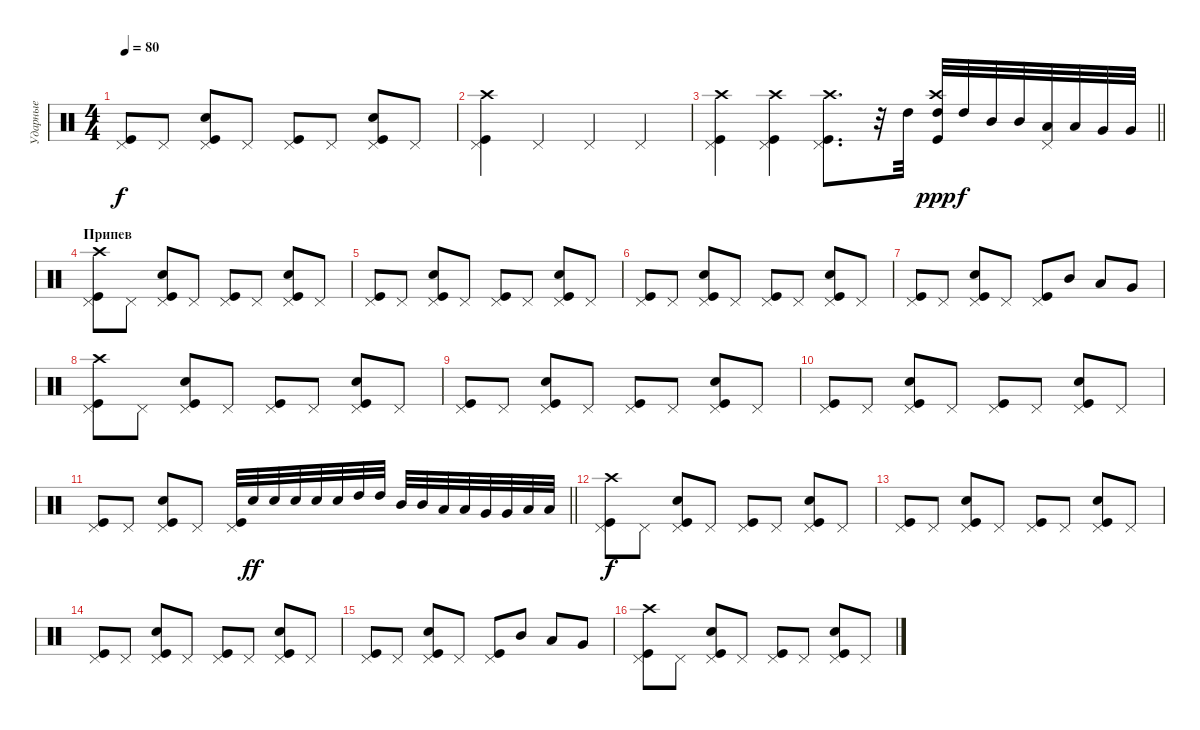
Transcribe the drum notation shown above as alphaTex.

\track ("Ударные" "Ударные") {instrument percussion}
\staff {score}
\articulation defaults
\ts (4 4)
\tempo 80
\clef neutral
\ks c
("Kick (hit)" "Pedal Hi-Hat (hit)").8{dy f} "Pedal Hi-Hat (hit)".8 ("Kick (hit)" "Snare (hit) 2" "Pedal Hi-Hat (hit)").8 "Pedal Hi-Hat (hit)".8 ("Kick (hit)" "Pedal Hi-Hat (hit)").8 "Pedal Hi-Hat (hit)".8 ("Kick (hit)" "Snare (hit) 2" "Pedal Hi-Hat (hit)").8 "Pedal Hi-Hat (hit)".8 |
("Kick (hit)" "Crash high (hit)" "Pedal Hi-Hat (hit)").4 "Pedal Hi-Hat (hit)".4 "Pedal Hi-Hat (hit)".4 "Pedal Hi-Hat (hit)".4 |
\barLineRight lightlight
("Kick (hit)" "Pedal Hi-Hat (hit)" "Crash high (hit)").4 ("Kick (hit)" "Pedal Hi-Hat (hit)" "Crash high (hit)").4 ("Kick (hit)" "Pedal Hi-Hat (hit)" "Crash high (hit)").8{d} r.32 "High Tom (hit)".32 ("Kick (hit)" "High Tom (hit)" "Crash high (hit)").32{dy ppp} "High Tom (hit)".32{dy f} "Mid Tom (hit)".32 "Mid Tom (hit)".32 ("Low Tom (hit)" "Pedal Hi-Hat (hit)").32 "Low Tom (hit)".32 "Very Low Tom (hit)".32 "Very Low Tom (hit)".32 |
\section ("" "Припев")
("Kick (hit)" "Crash high (hit)" "Pedal Hi-Hat (hit)").8 "Pedal Hi-Hat (hit)".8 ("Kick (hit)" "Snare (hit) 2" "Pedal Hi-Hat (hit)").8 "Pedal Hi-Hat (hit)".8 ("Kick (hit)" "Pedal Hi-Hat (hit)").8 "Pedal Hi-Hat (hit)".8 ("Kick (hit)" "Snare (hit) 2" "Pedal Hi-Hat (hit)").8 "Pedal Hi-Hat (hit)".8 |
("Kick (hit)" "Pedal Hi-Hat (hit)").8 "Pedal Hi-Hat (hit)".8 ("Kick (hit)" "Snare (hit) 2" "Pedal Hi-Hat (hit)").8 "Pedal Hi-Hat (hit)".8 ("Kick (hit)" "Pedal Hi-Hat (hit)").8 "Pedal Hi-Hat (hit)".8 ("Kick (hit)" "Snare (hit) 2" "Pedal Hi-Hat (hit)").8 "Pedal Hi-Hat (hit)".8 |
("Kick (hit)" "Pedal Hi-Hat (hit)").8 "Pedal Hi-Hat (hit)".8 ("Kick (hit)" "Snare (hit) 2" "Pedal Hi-Hat (hit)").8 "Pedal Hi-Hat (hit)".8 ("Kick (hit)" "Pedal Hi-Hat (hit)").8 "Pedal Hi-Hat (hit)".8 ("Kick (hit)" "Snare (hit) 2" "Pedal Hi-Hat (hit)").8 "Pedal Hi-Hat (hit)".8 |
("Kick (hit)" "Pedal Hi-Hat (hit)").8 "Pedal Hi-Hat (hit)".8 ("Kick (hit)" "Snare (hit) 2" "Pedal Hi-Hat (hit)").8 "Pedal Hi-Hat (hit)".8 ("Kick (hit)" "Pedal Hi-Hat (hit)").8 "Mid Tom (hit)".8 "Low Tom (hit)".8 "Very Low Tom (hit)".8 |
("Kick (hit)" "Crash high (hit)" "Pedal Hi-Hat (hit)").8 "Pedal Hi-Hat (hit)".8 ("Kick (hit)" "Snare (hit) 2" "Pedal Hi-Hat (hit)").8 "Pedal Hi-Hat (hit)".8 ("Kick (hit)" "Pedal Hi-Hat (hit)").8 "Pedal Hi-Hat (hit)".8 ("Kick (hit)" "Snare (hit) 2" "Pedal Hi-Hat (hit)").8 "Pedal Hi-Hat (hit)".8 |
("Kick (hit)" "Pedal Hi-Hat (hit)").8 "Pedal Hi-Hat (hit)".8 ("Kick (hit)" "Snare (hit) 2" "Pedal Hi-Hat (hit)").8 "Pedal Hi-Hat (hit)".8 ("Kick (hit)" "Pedal Hi-Hat (hit)").8 "Pedal Hi-Hat (hit)".8 ("Kick (hit)" "Snare (hit) 2" "Pedal Hi-Hat (hit)").8 "Pedal Hi-Hat (hit)".8 |
("Kick (hit)" "Pedal Hi-Hat (hit)").8 "Pedal Hi-Hat (hit)".8 ("Kick (hit)" "Snare (hit) 2" "Pedal Hi-Hat (hit)").8 "Pedal Hi-Hat (hit)".8 ("Kick (hit)" "Pedal Hi-Hat (hit)").8 "Pedal Hi-Hat (hit)".8 ("Kick (hit)" "Snare (hit) 2" "Pedal Hi-Hat (hit)").8 "Pedal Hi-Hat (hit)".8 |
\barLineRight lightlight
("Kick (hit)" "Pedal Hi-Hat (hit)").8 "Pedal Hi-Hat (hit)".8 ("Kick (hit)" "Snare (hit) 2" "Pedal Hi-Hat (hit)").8 "Pedal Hi-Hat (hit)".8 ("Kick (hit)" "Pedal Hi-Hat (hit)").32 "Snare (hit) 2".32{dy ff} "Snare (hit) 2".32 "Snare (hit) 2".32 "Snare (hit) 2".32 "Snare (hit) 2".32 "High Tom (hit)".32 "High Tom (hit)".32 "Mid Tom (hit)".32 "Mid Tom (hit)".32 "Low Tom (hit)".32 "Low Tom (hit)".32 "Very Low Tom (hit)".32 "Very Low Tom (hit)".32 "Low Floor Tom (hit)".32 "Low Floor Tom (hit)".32 |
("Kick (hit)" "Crash high (hit)" "Pedal Hi-Hat (hit)").8{dy f} "Pedal Hi-Hat (hit)".8 ("Kick (hit)" "Snare (hit) 2" "Pedal Hi-Hat (hit)").8 "Pedal Hi-Hat (hit)".8 ("Kick (hit)" "Pedal Hi-Hat (hit)").8 "Pedal Hi-Hat (hit)".8 ("Kick (hit)" "Snare (hit) 2" "Pedal Hi-Hat (hit)").8 "Pedal Hi-Hat (hit)".8 |
("Kick (hit)" "Pedal Hi-Hat (hit)").8 "Pedal Hi-Hat (hit)".8 ("Kick (hit)" "Snare (hit) 2" "Pedal Hi-Hat (hit)").8 "Pedal Hi-Hat (hit)".8 ("Kick (hit)" "Pedal Hi-Hat (hit)").8 "Pedal Hi-Hat (hit)".8 ("Kick (hit)" "Snare (hit) 2" "Pedal Hi-Hat (hit)").8 "Pedal Hi-Hat (hit)".8 |
("Kick (hit)" "Pedal Hi-Hat (hit)").8 "Pedal Hi-Hat (hit)".8 ("Kick (hit)" "Snare (hit) 2" "Pedal Hi-Hat (hit)").8 "Pedal Hi-Hat (hit)".8 ("Kick (hit)" "Pedal Hi-Hat (hit)").8 "Pedal Hi-Hat (hit)".8 ("Kick (hit)" "Snare (hit) 2" "Pedal Hi-Hat (hit)").8 "Pedal Hi-Hat (hit)".8 |
("Kick (hit)" "Pedal Hi-Hat (hit)").8 "Pedal Hi-Hat (hit)".8 ("Kick (hit)" "Snare (hit) 2" "Pedal Hi-Hat (hit)").8 "Pedal Hi-Hat (hit)".8 ("Kick (hit)" "Pedal Hi-Hat (hit)").8 "Mid Tom (hit)".8 "Low Tom (hit)".8 "Very Low Tom (hit)".8 |
("Kick (hit)" "Crash high (hit)" "Pedal Hi-Hat (hit)").8 "Pedal Hi-Hat (hit)".8 ("Kick (hit)" "Snare (hit) 2" "Pedal Hi-Hat (hit)").8 "Pedal Hi-Hat (hit)".8 ("Kick (hit)" "Pedal Hi-Hat (hit)").8 "Pedal Hi-Hat (hit)".8 ("Kick (hit)" "Snare (hit) 2" "Pedal Hi-Hat (hit)").8 "Pedal Hi-Hat (hit)".8
